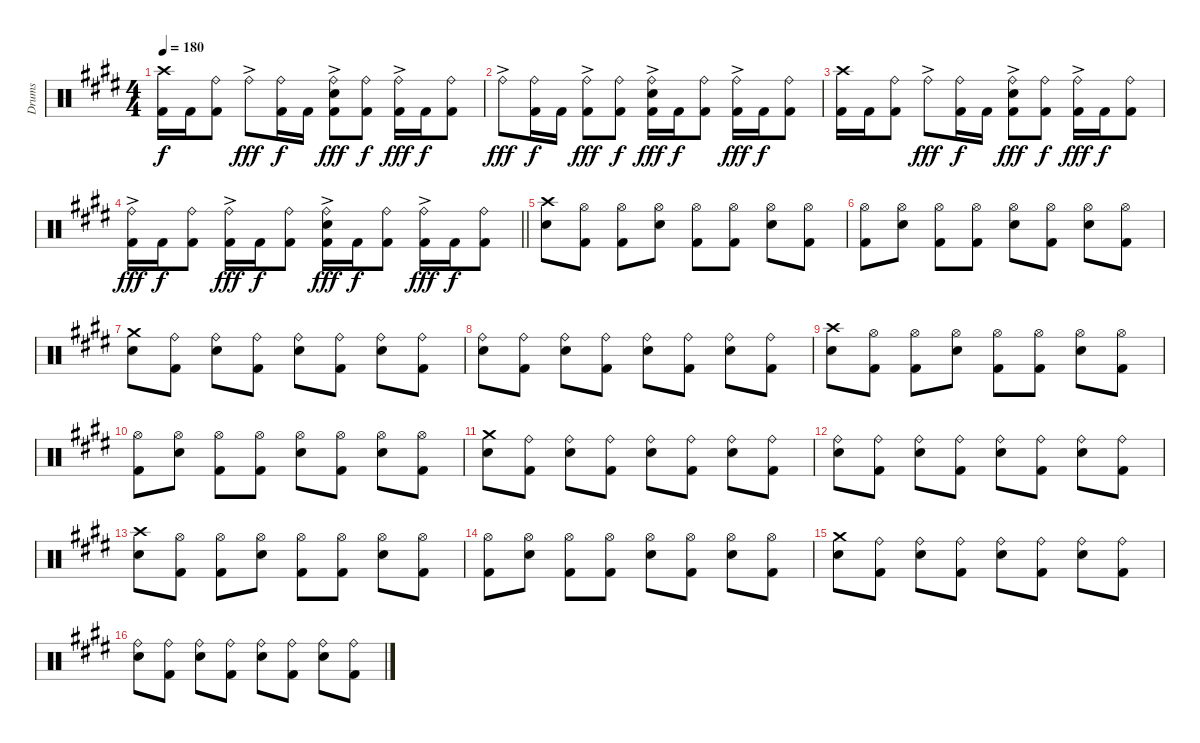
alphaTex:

\track ("Drums" "Drums") {instrument percussion}
\staff {score}
\articulation defaults
\ts (4 4)
\tempo 180
\clef neutral
\ks c#minor
("Crash high (hit)" "Kick (hit) 2").16{dy f} "Kick (hit) 2".16 ("Ride (bell)" "Kick (hit) 2").8 "Ride (bell)"{ac}.8{dy fff} ("Ride (bell)" "Kick (hit) 2").16{dy f} "Kick (hit) 2".16 ("Ride (bell)"{ac} "Snare (hit) 2" "Kick (hit) 2").8{dy fff} ("Ride (bell)" "Kick (hit) 2").8{dy f} ("Ride (bell)"{ac} "Kick (hit) 2").16{dy fff} "Kick (hit) 2".16{dy f} ("Ride (bell)" "Kick (hit) 2").8 |
"Ride (bell)"{ac}.8{dy fff} ("Ride (bell)" "Kick (hit) 2").16{dy f} "Kick (hit) 2".16 ("Ride (bell)"{ac} "Kick (hit) 2").8{dy fff} ("Ride (bell)" "Kick (hit) 2").8{dy f} ("Ride (bell)"{ac} "Snare (hit) 2" "Kick (hit) 2").16{dy fff} "Kick (hit) 2".16{dy f} ("Ride (bell)" "Kick (hit) 2").8 ("Ride (bell)"{ac} "Kick (hit) 2").16{dy fff} "Kick (hit) 2".16{dy f} ("Ride (bell)" "Kick (hit) 2").8 |
("Crash high (hit)" "Kick (hit) 2").16 "Kick (hit) 2".16 ("Ride (bell)" "Kick (hit) 2").8 "Ride (bell)"{ac}.8{dy fff} ("Ride (bell)" "Kick (hit) 2").16{dy f} "Kick (hit) 2".16 ("Ride (bell)"{ac} "Snare (hit) 2" "Kick (hit) 2").8{dy fff} ("Ride (bell)" "Kick (hit) 2").8{dy f} ("Ride (bell)"{ac} "Kick (hit) 2").16{dy fff} "Kick (hit) 2".16{dy f} ("Ride (bell)" "Kick (hit) 2").8 |
\barLineRight lightlight
("Ride (bell)"{ac} "Kick (hit) 2").16{dy fff} "Kick (hit) 2".16{dy f} ("Ride (bell)" "Kick (hit) 2").8 ("Ride (bell)"{ac} "Kick (hit) 2").16{dy fff} "Kick (hit) 2".16{dy f} ("Ride (bell)" "Kick (hit) 2").8 ("Ride (bell)"{ac} "Snare (hit) 2" "Kick (hit) 2").16{dy fff} "Kick (hit) 2".16{dy f} ("Ride (bell)" "Kick (hit) 2").8 ("Ride (bell)"{ac} "Kick (hit) 2").16{dy fff} "Kick (hit) 2".16{dy f} ("Ride (bell)" "Kick (hit) 2").8 |
("Crash high (hit)" "Snare (hit) 2").8 ("Hi-Hat (open)" "Kick (hit) 2").8 ("Hi-Hat (open)" "Kick (hit) 2").8 ("Hi-Hat (open)" "Snare (hit) 2").8 ("Hi-Hat (open)" "Kick (hit) 2").8 ("Hi-Hat (open)" "Kick (hit) 2").8 ("Hi-Hat (open)" "Snare (hit) 2").8 ("Hi-Hat (open)" "Kick (hit) 2").8 |
("Hi-Hat (open)" "Kick (hit) 2").8 ("Hi-Hat (open)" "Snare (hit) 2").8 ("Hi-Hat (open)" "Kick (hit) 2").8 ("Hi-Hat (open)" "Kick (hit) 2").8 ("Hi-Hat (open)" "Snare (hit) 2").8 ("Hi-Hat (open)" "Kick (hit) 2").8 ("Hi-Hat (open)" "Snare (hit) 2").8 ("Hi-Hat (open)" "Kick (hit) 2").8 |
("Crash medium (hit)" "Snare (hit) 2").8 ("Ride (bell)" "Kick (hit) 2").8 ("Ride (bell)" "Snare (hit) 2").8 ("Ride (bell)" "Kick (hit) 2").8 ("Ride (bell)" "Snare (hit) 2").8 ("Ride (bell)" "Kick (hit) 2").8 ("Ride (bell)" "Snare (hit) 2").8 ("Ride (bell)" "Kick (hit) 2").8 |
("Ride (bell)" "Snare (hit) 2").8 ("Ride (bell)" "Kick (hit) 2").8 ("Ride (bell)" "Snare (hit) 2").8 ("Ride (bell)" "Kick (hit) 2").8 ("Ride (bell)" "Snare (hit) 2").8 ("Ride (bell)" "Kick (hit) 2").8 ("Ride (bell)" "Snare (hit) 2").8 ("Ride (bell)" "Kick (hit) 2").8 |
("Crash high (hit)" "Snare (hit) 2").8 ("Hi-Hat (open)" "Kick (hit) 2").8 ("Hi-Hat (open)" "Kick (hit) 2").8 ("Hi-Hat (open)" "Snare (hit) 2").8 ("Hi-Hat (open)" "Kick (hit) 2").8 ("Hi-Hat (open)" "Kick (hit) 2").8 ("Hi-Hat (open)" "Snare (hit) 2").8 ("Hi-Hat (open)" "Kick (hit) 2").8 |
("Hi-Hat (open)" "Kick (hit) 2").8 ("Hi-Hat (open)" "Snare (hit) 2").8 ("Hi-Hat (open)" "Kick (hit) 2").8 ("Hi-Hat (open)" "Kick (hit) 2").8 ("Hi-Hat (open)" "Snare (hit) 2").8 ("Hi-Hat (open)" "Kick (hit) 2").8 ("Hi-Hat (open)" "Snare (hit) 2").8 ("Hi-Hat (open)" "Kick (hit) 2").8 |
("Crash medium (hit)" "Snare (hit) 2").8 ("Ride (bell)" "Kick (hit) 2").8 ("Ride (bell)" "Snare (hit) 2").8 ("Ride (bell)" "Kick (hit) 2").8 ("Ride (bell)" "Snare (hit) 2").8 ("Ride (bell)" "Kick (hit) 2").8 ("Ride (bell)" "Snare (hit) 2").8 ("Ride (bell)" "Kick (hit) 2").8 |
("Ride (bell)" "Snare (hit) 2").8 ("Ride (bell)" "Kick (hit) 2").8 ("Ride (bell)" "Snare (hit) 2").8 ("Ride (bell)" "Kick (hit) 2").8 ("Ride (bell)" "Snare (hit) 2").8 ("Ride (bell)" "Kick (hit) 2").8 ("Ride (bell)" "Snare (hit) 2").8 ("Ride (bell)" "Kick (hit) 2").8 |
("Crash high (hit)" "Snare (hit) 2").8 ("Hi-Hat (open)" "Kick (hit) 2").8 ("Hi-Hat (open)" "Kick (hit) 2").8 ("Hi-Hat (open)" "Snare (hit) 2").8 ("Hi-Hat (open)" "Kick (hit) 2").8 ("Hi-Hat (open)" "Kick (hit) 2").8 ("Hi-Hat (open)" "Snare (hit) 2").8 ("Hi-Hat (open)" "Kick (hit) 2").8 |
("Hi-Hat (open)" "Kick (hit) 2").8 ("Hi-Hat (open)" "Snare (hit) 2").8 ("Hi-Hat (open)" "Kick (hit) 2").8 ("Hi-Hat (open)" "Kick (hit) 2").8 ("Hi-Hat (open)" "Snare (hit) 2").8 ("Hi-Hat (open)" "Kick (hit) 2").8 ("Hi-Hat (open)" "Snare (hit) 2").8 ("Hi-Hat (open)" "Kick (hit) 2").8 |
("Crash medium (hit)" "Snare (hit) 2").8 ("Ride (bell)" "Kick (hit) 2").8 ("Ride (bell)" "Snare (hit) 2").8 ("Ride (bell)" "Kick (hit) 2").8 ("Ride (bell)" "Snare (hit) 2").8 ("Ride (bell)" "Kick (hit) 2").8 ("Ride (bell)" "Snare (hit) 2").8 ("Ride (bell)" "Kick (hit) 2").8 |
("Ride (bell)" "Snare (hit) 2").8 ("Ride (bell)" "Kick (hit) 2").8 ("Ride (bell)" "Snare (hit) 2").8 ("Ride (bell)" "Kick (hit) 2").8 ("Ride (bell)" "Snare (hit) 2").8 ("Ride (bell)" "Kick (hit) 2").8 ("Ride (bell)" "Snare (hit) 2").8 ("Ride (bell)" "Kick (hit) 2").8
